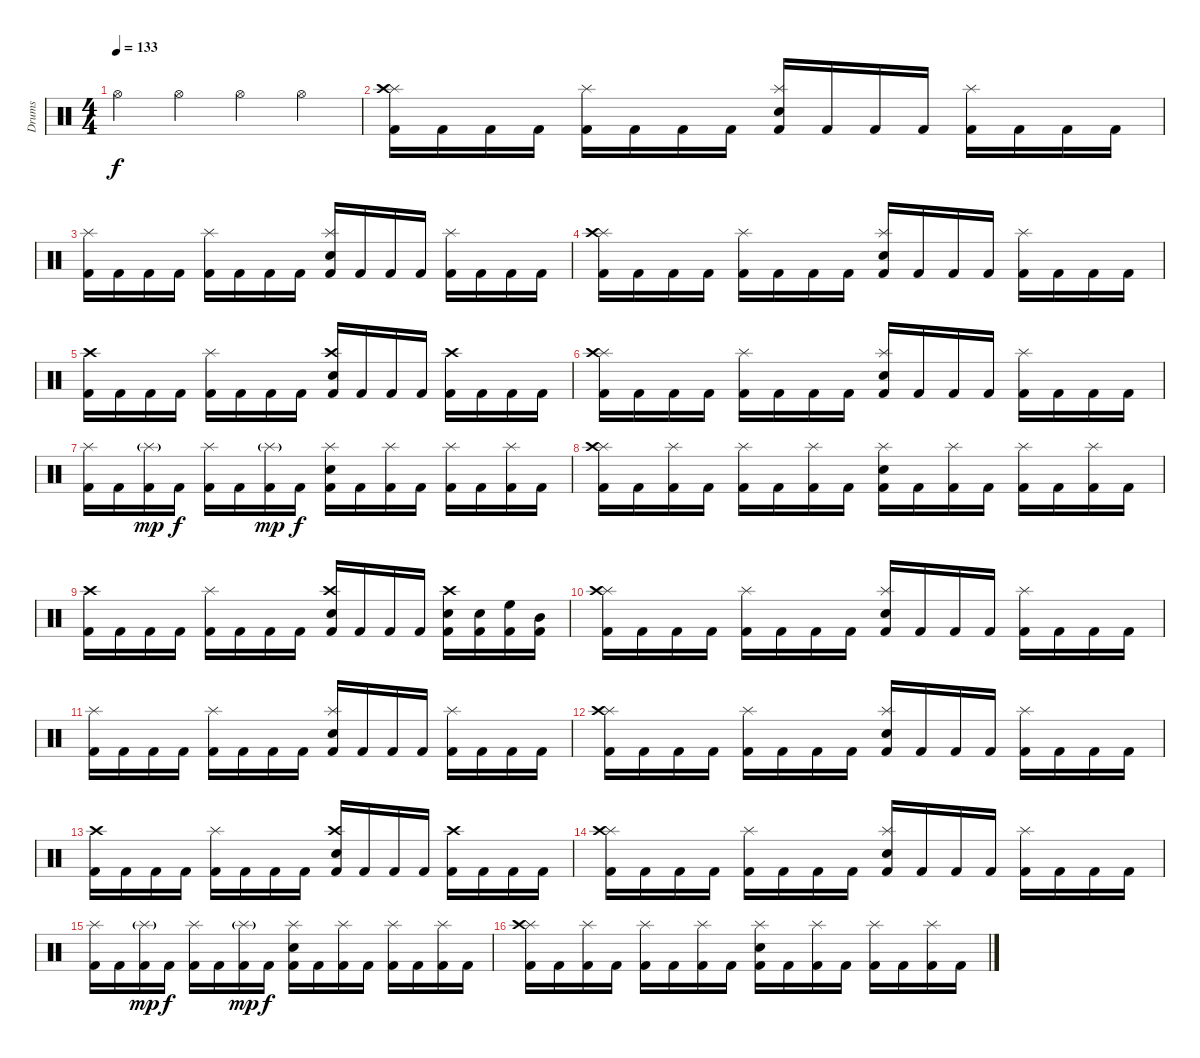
\track ("Drums" "Drums") {instrument percussion}
\staff {score}
\articulation defaults
\ts (4 4)
\tempo 133
\clef neutral
\ks c "Hi-Hat (open)".4{dy f} "Hi-Hat (open)".4 "Hi-Hat (open)".4 "Hi-Hat (open)".4
|
("Kick (hit) 2" "Splash (hit)" "Crash high (hit)").16 "Kick (hit) 2".16 "Kick (hit) 2".16 "Kick (hit) 2".16 ("Kick (hit) 2" "Splash (hit)").16 "Kick (hit) 2".16 "Kick (hit) 2".16 "Kick (hit) 2".16 ("Kick (hit) 2" "Snare (hit) 2" "Splash (hit)").16 "Kick (hit) 2".16 "Kick (hit) 2".16 "Kick (hit) 2".16 ("Kick (hit) 2" "Splash (hit)").16 "Kick (hit) 2".16 "Kick (hit) 2".16 "Kick (hit) 2".16 |
("Kick (hit) 2" "Splash (hit)").16 "Kick (hit) 2".16 "Kick (hit) 2".16 "Kick (hit) 2".16 ("Kick (hit) 2" "Splash (hit)").16 "Kick (hit) 2".16 "Kick (hit) 2".16 "Kick (hit) 2".16 ("Kick (hit) 2" "Snare (hit) 2" "Splash (hit)").16 "Kick (hit) 2".16 "Kick (hit) 2".16 "Kick (hit) 2".16 ("Kick (hit) 2" "Splash (hit)").16 "Kick (hit) 2".16 "Kick (hit) 2".16 "Kick (hit) 2".16 |
("Kick (hit) 2" "Splash (hit)" "Crash high (hit)").16 "Kick (hit) 2".16 "Kick (hit) 2".16 "Kick (hit) 2".16 ("Kick (hit) 2" "Splash (hit)").16 "Kick (hit) 2".16 "Kick (hit) 2".16 "Kick (hit) 2".16 ("Kick (hit) 2" "Snare (hit) 2" "Splash (hit)").16 "Kick (hit) 2".16 "Kick (hit) 2".16 "Kick (hit) 2".16 ("Kick (hit) 2" "Splash (hit)").16 "Kick (hit) 2".16 "Kick (hit) 2".16 "Kick (hit) 2".16 |
("Kick (hit) 2" "Crash high (hit)").16 "Kick (hit) 2".16 "Kick (hit) 2".16 "Kick (hit) 2".16 ("Kick (hit) 2" "Splash (hit)").16 "Kick (hit) 2".16 "Kick (hit) 2".16 "Kick (hit) 2".16 ("Kick (hit) 2" "Snare (hit) 2" "Crash high (hit)").16 "Kick (hit) 2".16 "Kick (hit) 2".16 "Kick (hit) 2".16 ("Kick (hit) 2" "Crash high (hit)").16 "Kick (hit) 2".16 "Kick (hit) 2".16 "Kick (hit) 2".16 |
("Kick (hit) 2" "Splash (hit)" "Crash high (hit)").16 "Kick (hit) 2".16 "Kick (hit) 2".16 "Kick (hit) 2".16 ("Kick (hit) 2" "Splash (hit)").16 "Kick (hit) 2".16 "Kick (hit) 2".16 "Kick (hit) 2".16 ("Kick (hit) 2" "Snare (hit) 2" "Splash (hit)").16 "Kick (hit) 2".16 "Kick (hit) 2".16 "Kick (hit) 2".16 ("Kick (hit) 2" "Splash (hit)").16 "Kick (hit) 2".16 "Kick (hit) 2".16 "Kick (hit) 2".16 |
("Kick (hit) 2" "Splash (hit)").16 "Kick (hit) 2".16 ("Kick (hit) 2" "Splash (hit)"{g}).16{dy mp} "Kick (hit) 2".16{dy f} ("Kick (hit) 2" "Splash (hit)").16 "Kick (hit) 2".16 ("Kick (hit) 2" "Splash (hit)"{g}).16{dy mp} "Kick (hit) 2".16{dy f} ("Kick (hit) 2" "Snare (hit) 2" "Splash (hit)").16 "Kick (hit) 2".16 ("Kick (hit) 2" "Splash (hit)").16 "Kick (hit) 2".16 ("Kick (hit) 2" "Splash (hit)").16 "Kick (hit) 2".16 ("Kick (hit) 2" "Splash (hit)").16 "Kick (hit) 2".16 |
("Kick (hit) 2" "Splash (hit)" "Crash high (hit)").16 "Kick (hit) 2".16 ("Kick (hit) 2" "Splash (hit)").16 "Kick (hit) 2".16 ("Kick (hit) 2" "Splash (hit)").16 "Kick (hit) 2".16 ("Kick (hit) 2" "Splash (hit)").16 "Kick (hit) 2".16 ("Kick (hit) 2" "Snare (hit) 2" "Splash (hit)").16 "Kick (hit) 2".16 ("Kick (hit) 2" "Splash (hit)").16 "Kick (hit) 2".16 ("Kick (hit) 2" "Splash (hit)").16 "Kick (hit) 2".16 ("Kick (hit) 2" "Splash (hit)").16 "Kick (hit) 2".16 |
("Kick (hit) 2" "Crash high (hit)").16 "Kick (hit) 2".16 "Kick (hit) 2".16 "Kick (hit) 2".16 ("Kick (hit) 2" "Splash (hit)").16 "Kick (hit) 2".16 "Kick (hit) 2".16 "Kick (hit) 2".16 ("Kick (hit) 2" "Snare (hit) 2" "Crash high (hit)").16 "Kick (hit) 2".16 "Kick (hit) 2".16 "Kick (hit) 2".16 ("Kick (hit) 2" "Snare (hit) 2" "Crash high (hit)").16 ("Kick (hit) 2" "Snare (hit) 2").16 ("Kick (hit) 2" "High Floor Tom (hit)").16 ("Kick (hit) 2" "Mid Tom (hit)").16 |
("Kick (hit) 2" "Splash (hit)" "Crash high (hit)").16 "Kick (hit) 2".16 "Kick (hit) 2".16 "Kick (hit) 2".16 ("Kick (hit) 2" "Splash (hit)").16 "Kick (hit) 2".16 "Kick (hit) 2".16 "Kick (hit) 2".16 ("Kick (hit) 2" "Snare (hit) 2" "Splash (hit)").16 "Kick (hit) 2".16 "Kick (hit) 2".16 "Kick (hit) 2".16 ("Kick (hit) 2" "Splash (hit)").16 "Kick (hit) 2".16 "Kick (hit) 2".16 "Kick (hit) 2".16 |
("Kick (hit) 2" "Splash (hit)").16 "Kick (hit) 2".16 "Kick (hit) 2".16 "Kick (hit) 2".16 ("Kick (hit) 2" "Splash (hit)").16 "Kick (hit) 2".16 "Kick (hit) 2".16 "Kick (hit) 2".16 ("Kick (hit) 2" "Snare (hit) 2" "Splash (hit)").16 "Kick (hit) 2".16 "Kick (hit) 2".16 "Kick (hit) 2".16 ("Kick (hit) 2" "Splash (hit)").16 "Kick (hit) 2".16 "Kick (hit) 2".16 "Kick (hit) 2".16 |
("Kick (hit) 2" "Splash (hit)" "Crash high (hit)").16 "Kick (hit) 2".16 "Kick (hit) 2".16 "Kick (hit) 2".16 ("Kick (hit) 2" "Splash (hit)").16 "Kick (hit) 2".16 "Kick (hit) 2".16 "Kick (hit) 2".16 ("Kick (hit) 2" "Snare (hit) 2" "Splash (hit)").16 "Kick (hit) 2".16 "Kick (hit) 2".16 "Kick (hit) 2".16 ("Kick (hit) 2" "Splash (hit)").16 "Kick (hit) 2".16 "Kick (hit) 2".16 "Kick (hit) 2".16 |
("Kick (hit) 2" "Crash high (hit)").16 "Kick (hit) 2".16 "Kick (hit) 2".16 "Kick (hit) 2".16 ("Kick (hit) 2" "Splash (hit)").16 "Kick (hit) 2".16 "Kick (hit) 2".16 "Kick (hit) 2".16 ("Kick (hit) 2" "Snare (hit) 2" "Crash high (hit)").16 "Kick (hit) 2".16 "Kick (hit) 2".16 "Kick (hit) 2".16 ("Kick (hit) 2" "Crash high (hit)").16 "Kick (hit) 2".16 "Kick (hit) 2".16 "Kick (hit) 2".16 |
("Kick (hit) 2" "Splash (hit)" "Crash high (hit)").16 "Kick (hit) 2".16 "Kick (hit) 2".16 "Kick (hit) 2".16 ("Kick (hit) 2" "Splash (hit)").16 "Kick (hit) 2".16 "Kick (hit) 2".16 "Kick (hit) 2".16 ("Kick (hit) 2" "Snare (hit) 2" "Splash (hit)").16 "Kick (hit) 2".16 "Kick (hit) 2".16 "Kick (hit) 2".16 ("Kick (hit) 2" "Splash (hit)").16 "Kick (hit) 2".16 "Kick (hit) 2".16 "Kick (hit) 2".16 |
("Kick (hit) 2" "Splash (hit)").16 "Kick (hit) 2".16 ("Kick (hit) 2" "Splash (hit)"{g}).16{dy mp} "Kick (hit) 2".16{dy f} ("Kick (hit) 2" "Splash (hit)").16 "Kick (hit) 2".16 ("Kick (hit) 2" "Splash (hit)"{g}).16{dy mp} "Kick (hit) 2".16{dy f} ("Kick (hit) 2" "Snare (hit) 2" "Splash (hit)").16 "Kick (hit) 2".16 ("Kick (hit) 2" "Splash (hit)").16 "Kick (hit) 2".16 ("Kick (hit) 2" "Splash (hit)").16 "Kick (hit) 2".16 ("Kick (hit) 2" "Splash (hit)").16 "Kick (hit) 2".16 |
("Kick (hit) 2" "Splash (hit)" "Crash high (hit)").16 "Kick (hit) 2".16 ("Kick (hit) 2" "Splash (hit)").16 "Kick (hit) 2".16 ("Kick (hit) 2" "Splash (hit)").16 "Kick (hit) 2".16 ("Kick (hit) 2" "Splash (hit)").16 "Kick (hit) 2".16 ("Kick (hit) 2" "Snare (hit) 2" "Splash (hit)").16 "Kick (hit) 2".16 ("Kick (hit) 2" "Splash (hit)").16 "Kick (hit) 2".16 ("Kick (hit) 2" "Splash (hit)").16 "Kick (hit) 2".16 ("Kick (hit) 2" "Splash (hit)").16 "Kick (hit) 2".16
